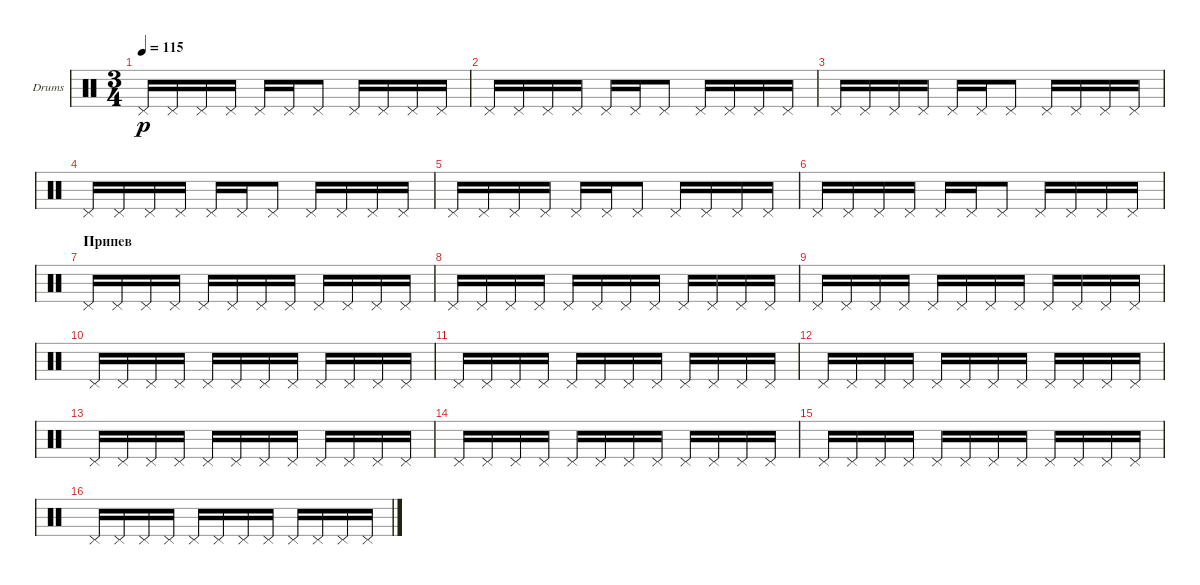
\defaultSystemsLayout 4
\bracketExtendMode groupsimilarinstruments
\firstSystemTrackNameOrientation horizontal
\otherSystemsTrackNameOrientation horizontal
\track ("Е. Кулаков" "Drums") {instrument percussion}
\staff {score}
\articulation defaults
\ts (3 4)
\tempo 115
\clef neutral
\ks c "Pedal Hi-Hat (hit)".16{dy p} "Pedal Hi-Hat (hit)".16 "Pedal Hi-Hat (hit)".16 "Pedal Hi-Hat (hit)".16 "Pedal Hi-Hat (hit)".16 "Pedal Hi-Hat (hit)".16 "Pedal Hi-Hat (hit)".8 "Pedal Hi-Hat (hit)".16 "Pedal Hi-Hat (hit)".16 "Pedal Hi-Hat (hit)".16 "Pedal Hi-Hat (hit)".16
|
"Pedal Hi-Hat (hit)".16 "Pedal Hi-Hat (hit)".16 "Pedal Hi-Hat (hit)".16 "Pedal Hi-Hat (hit)".16 "Pedal Hi-Hat (hit)".16 "Pedal Hi-Hat (hit)".16 "Pedal Hi-Hat (hit)".8 "Pedal Hi-Hat (hit)".16 "Pedal Hi-Hat (hit)".16 "Pedal Hi-Hat (hit)".16 "Pedal Hi-Hat (hit)".16 |
"Pedal Hi-Hat (hit)".16 "Pedal Hi-Hat (hit)".16 "Pedal Hi-Hat (hit)".16 "Pedal Hi-Hat (hit)".16 "Pedal Hi-Hat (hit)".16 "Pedal Hi-Hat (hit)".16 "Pedal Hi-Hat (hit)".8 "Pedal Hi-Hat (hit)".16 "Pedal Hi-Hat (hit)".16 "Pedal Hi-Hat (hit)".16 "Pedal Hi-Hat (hit)".16 |
"Pedal Hi-Hat (hit)".16 "Pedal Hi-Hat (hit)".16 "Pedal Hi-Hat (hit)".16 "Pedal Hi-Hat (hit)".16 "Pedal Hi-Hat (hit)".16 "Pedal Hi-Hat (hit)".16 "Pedal Hi-Hat (hit)".8 "Pedal Hi-Hat (hit)".16 "Pedal Hi-Hat (hit)".16 "Pedal Hi-Hat (hit)".16 "Pedal Hi-Hat (hit)".16 |
"Pedal Hi-Hat (hit)".16 "Pedal Hi-Hat (hit)".16 "Pedal Hi-Hat (hit)".16 "Pedal Hi-Hat (hit)".16 "Pedal Hi-Hat (hit)".16 "Pedal Hi-Hat (hit)".16 "Pedal Hi-Hat (hit)".8 "Pedal Hi-Hat (hit)".16 "Pedal Hi-Hat (hit)".16 "Pedal Hi-Hat (hit)".16 "Pedal Hi-Hat (hit)".16 |
"Pedal Hi-Hat (hit)".16 "Pedal Hi-Hat (hit)".16 "Pedal Hi-Hat (hit)".16 "Pedal Hi-Hat (hit)".16 "Pedal Hi-Hat (hit)".16 "Pedal Hi-Hat (hit)".16 "Pedal Hi-Hat (hit)".8 "Pedal Hi-Hat (hit)".16 "Pedal Hi-Hat (hit)".16 "Pedal Hi-Hat (hit)".16 "Pedal Hi-Hat (hit)".16 |
\section ("" "Припев")
"Pedal Hi-Hat (hit)".16 "Pedal Hi-Hat (hit)".16 "Pedal Hi-Hat (hit)".16 "Pedal Hi-Hat (hit)".16 "Pedal Hi-Hat (hit)".16 "Pedal Hi-Hat (hit)".16 "Pedal Hi-Hat (hit)".16 "Pedal Hi-Hat (hit)".16 "Pedal Hi-Hat (hit)".16 "Pedal Hi-Hat (hit)".16 "Pedal Hi-Hat (hit)".16 "Pedal Hi-Hat (hit)".16 |
"Pedal Hi-Hat (hit)".16 "Pedal Hi-Hat (hit)".16 "Pedal Hi-Hat (hit)".16 "Pedal Hi-Hat (hit)".16 "Pedal Hi-Hat (hit)".16 "Pedal Hi-Hat (hit)".16 "Pedal Hi-Hat (hit)".16 "Pedal Hi-Hat (hit)".16 "Pedal Hi-Hat (hit)".16 "Pedal Hi-Hat (hit)".16 "Pedal Hi-Hat (hit)".16 "Pedal Hi-Hat (hit)".16 |
"Pedal Hi-Hat (hit)".16 "Pedal Hi-Hat (hit)".16 "Pedal Hi-Hat (hit)".16 "Pedal Hi-Hat (hit)".16 "Pedal Hi-Hat (hit)".16 "Pedal Hi-Hat (hit)".16 "Pedal Hi-Hat (hit)".16 "Pedal Hi-Hat (hit)".16 "Pedal Hi-Hat (hit)".16 "Pedal Hi-Hat (hit)".16 "Pedal Hi-Hat (hit)".16 "Pedal Hi-Hat (hit)".16 |
"Pedal Hi-Hat (hit)".16 "Pedal Hi-Hat (hit)".16 "Pedal Hi-Hat (hit)".16 "Pedal Hi-Hat (hit)".16 "Pedal Hi-Hat (hit)".16 "Pedal Hi-Hat (hit)".16 "Pedal Hi-Hat (hit)".16 "Pedal Hi-Hat (hit)".16 "Pedal Hi-Hat (hit)".16 "Pedal Hi-Hat (hit)".16 "Pedal Hi-Hat (hit)".16 "Pedal Hi-Hat (hit)".16 |
"Pedal Hi-Hat (hit)".16 "Pedal Hi-Hat (hit)".16 "Pedal Hi-Hat (hit)".16 "Pedal Hi-Hat (hit)".16 "Pedal Hi-Hat (hit)".16 "Pedal Hi-Hat (hit)".16 "Pedal Hi-Hat (hit)".16 "Pedal Hi-Hat (hit)".16 "Pedal Hi-Hat (hit)".16 "Pedal Hi-Hat (hit)".16 "Pedal Hi-Hat (hit)".16 "Pedal Hi-Hat (hit)".16 |
"Pedal Hi-Hat (hit)".16 "Pedal Hi-Hat (hit)".16 "Pedal Hi-Hat (hit)".16 "Pedal Hi-Hat (hit)".16 "Pedal Hi-Hat (hit)".16 "Pedal Hi-Hat (hit)".16 "Pedal Hi-Hat (hit)".16 "Pedal Hi-Hat (hit)".16 "Pedal Hi-Hat (hit)".16 "Pedal Hi-Hat (hit)".16 "Pedal Hi-Hat (hit)".16 "Pedal Hi-Hat (hit)".16 |
"Pedal Hi-Hat (hit)".16 "Pedal Hi-Hat (hit)".16 "Pedal Hi-Hat (hit)".16 "Pedal Hi-Hat (hit)".16 "Pedal Hi-Hat (hit)".16 "Pedal Hi-Hat (hit)".16 "Pedal Hi-Hat (hit)".16 "Pedal Hi-Hat (hit)".16 "Pedal Hi-Hat (hit)".16 "Pedal Hi-Hat (hit)".16 "Pedal Hi-Hat (hit)".16 "Pedal Hi-Hat (hit)".16 |
"Pedal Hi-Hat (hit)".16 "Pedal Hi-Hat (hit)".16 "Pedal Hi-Hat (hit)".16 "Pedal Hi-Hat (hit)".16 "Pedal Hi-Hat (hit)".16 "Pedal Hi-Hat (hit)".16 "Pedal Hi-Hat (hit)".16 "Pedal Hi-Hat (hit)".16 "Pedal Hi-Hat (hit)".16 "Pedal Hi-Hat (hit)".16 "Pedal Hi-Hat (hit)".16 "Pedal Hi-Hat (hit)".16 |
"Pedal Hi-Hat (hit)".16 "Pedal Hi-Hat (hit)".16 "Pedal Hi-Hat (hit)".16 "Pedal Hi-Hat (hit)".16 "Pedal Hi-Hat (hit)".16 "Pedal Hi-Hat (hit)".16 "Pedal Hi-Hat (hit)".16 "Pedal Hi-Hat (hit)".16 "Pedal Hi-Hat (hit)".16 "Pedal Hi-Hat (hit)".16 "Pedal Hi-Hat (hit)".16 "Pedal Hi-Hat (hit)".16 |
"Pedal Hi-Hat (hit)".16 "Pedal Hi-Hat (hit)".16 "Pedal Hi-Hat (hit)".16 "Pedal Hi-Hat (hit)".16 "Pedal Hi-Hat (hit)".16 "Pedal Hi-Hat (hit)".16 "Pedal Hi-Hat (hit)".16 "Pedal Hi-Hat (hit)".16 "Pedal Hi-Hat (hit)".16 "Pedal Hi-Hat (hit)".16 "Pedal Hi-Hat (hit)".16 "Pedal Hi-Hat (hit)".16
